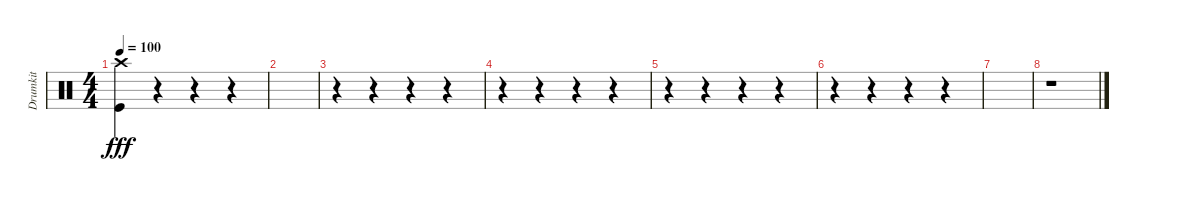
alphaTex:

\track ("Drumkit" "Drumkit") {instrument percussion}
\staff {score}
\articulation defaults
\ts (4 4)
\tempo 100
\clef neutral
\ks c
("Crash high (hit)" "Kick (hit)").4{dy fff} r.4 r.4 r.4 |
|
r.4 r.4 r.4 r.4 |
r.4 r.4 r.4 r.4 |
r.4 r.4 r.4 r.4 |
r.4 r.4 r.4 r.4 |
|
r.1
